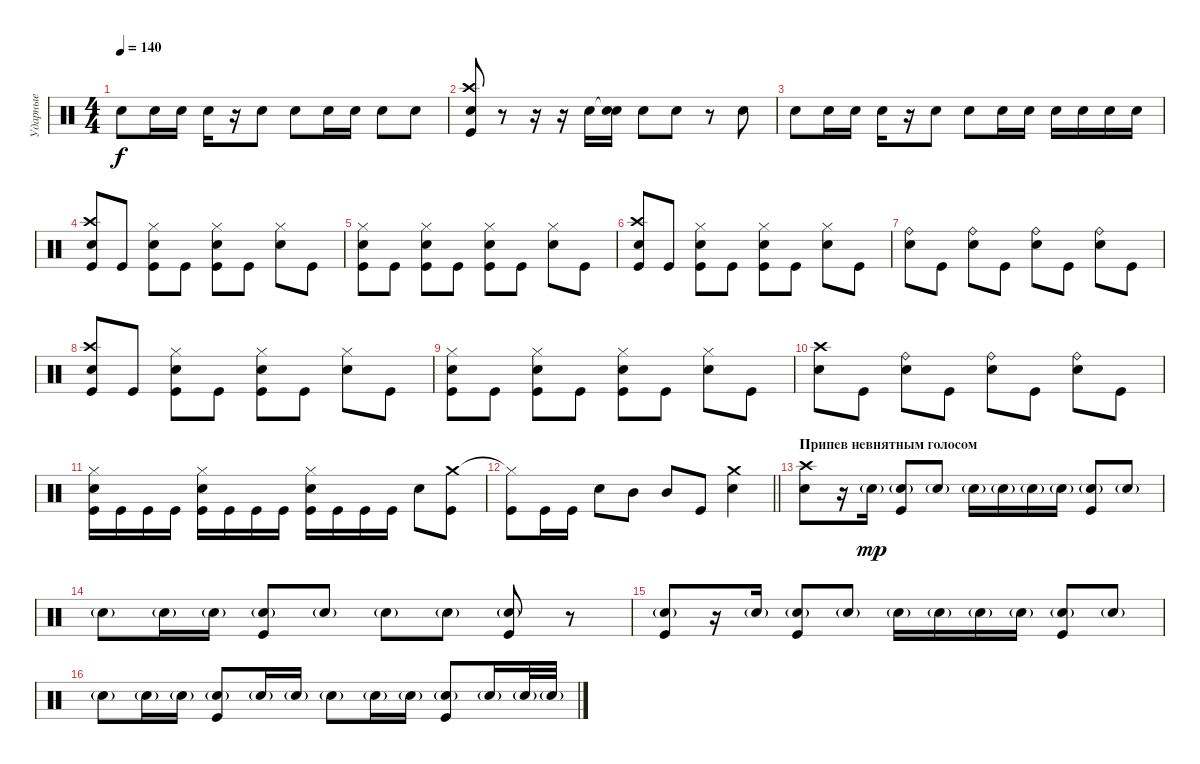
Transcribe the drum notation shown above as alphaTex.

\track ("Ударные" "Ударные") {instrument percussion}
\staff {score}
\articulation defaults
\ts (4 4)
\tempo 140
\clef neutral
\ks c "Electric Snare (hit)".8{dy f} "Electric Snare (hit)".16 "Electric Snare (hit)".16 "Electric Snare (hit)".16
r.16 "Electric Snare (hit)".8 "Electric Snare (hit)".8 "Electric Snare (hit)".16 "Electric Snare (hit)".16 "Electric Snare (hit)".8 "Electric Snare (hit)".8 |
("Crash high (hit)" "Electric Snare (hit)" "Kick (hit)").8 r.8 r.16 r.16 "Electric Snare (hit)".16 ("Snare (hit)"{t} "Electric Snare (hit)").16 "Electric Snare (hit)".8 "Electric Snare (hit)".8 r.8 "Electric Snare (hit)".8 |
"Electric Snare (hit)".8 "Electric Snare (hit)".16 "Electric Snare (hit)".16 "Electric Snare (hit)".16 r.16 "Electric Snare (hit)".8 "Electric Snare (hit)".8 "Electric Snare (hit)".16 "Electric Snare (hit)".16 "Electric Snare (hit)".16 "Electric Snare (hit)".16 "Electric Snare (hit)".16 "Electric Snare (hit)".16 |
("Crash high (hit)" "Electric Snare (hit)" "Kick (hit)").8 "Kick (hit)".8 ("Hi-Hat (closed)" "Electric Snare (hit)" "Kick (hit)").8 "Kick (hit)".8 ("Hi-Hat (closed)" "Electric Snare (hit)" "Kick (hit)").8 "Kick (hit)".8 ("Hi-Hat (closed)" "Electric Snare (hit)").8 "Kick (hit)".8 |
("Hi-Hat (closed)" "Electric Snare (hit)" "Kick (hit)").8 "Kick (hit)".8 ("Hi-Hat (closed)" "Electric Snare (hit)" "Kick (hit)").8 "Kick (hit)".8 ("Hi-Hat (closed)" "Electric Snare (hit)" "Kick (hit)").8 "Kick (hit)".8 ("Hi-Hat (closed)" "Electric Snare (hit)").8 "Kick (hit)".8 |
("Crash high (hit)" "Electric Snare (hit)" "Kick (hit)").8 "Kick (hit)".8 ("Hi-Hat (closed)" "Electric Snare (hit)" "Kick (hit)").8 "Kick (hit)".8 ("Hi-Hat (closed)" "Electric Snare (hit)" "Kick (hit)").8 "Kick (hit)".8 ("Hi-Hat (closed)" "Electric Snare (hit)").8 "Kick (hit)".8 |
("Ride (bell)" "Electric Snare (hit)").8 "Kick (hit)".8 ("Ride (bell)" "Electric Snare (hit)").8 "Kick (hit)".8 ("Ride (bell)" "Electric Snare (hit)").8 "Kick (hit)".8 ("Ride (bell)" "Electric Snare (hit)").8 "Kick (hit)".8 |
("Crash high (hit)" "Electric Snare (hit)" "Kick (hit)").8 "Kick (hit)".8 ("Hi-Hat (closed)" "Electric Snare (hit)" "Kick (hit)").8 "Kick (hit)".8 ("Hi-Hat (closed)" "Electric Snare (hit)" "Kick (hit)").8 "Kick (hit)".8 ("Hi-Hat (closed)" "Electric Snare (hit)").8 "Kick (hit)".8 |
("Hi-Hat (closed)" "Electric Snare (hit)" "Kick (hit)").8 "Kick (hit)".8 ("Hi-Hat (closed)" "Electric Snare (hit)" "Kick (hit)").8 "Kick (hit)".8 ("Hi-Hat (closed)" "Electric Snare (hit)" "Kick (hit)").8 "Kick (hit)".8 ("Hi-Hat (closed)" "Electric Snare (hit)").8 "Kick (hit)".8 |
("Crash high (hit)" "Electric Snare (hit)").8 "Kick (hit)".8 ("Ride (bell)" "Electric Snare (hit)").8 "Kick (hit)".8 ("Ride (bell)" "Electric Snare (hit)").8 "Kick (hit)".8 ("Ride (bell)" "Electric Snare (hit)").8 "Kick (hit)".8 |
("Hi-Hat (closed)" "Electric Snare (hit)" "Kick (hit)").16 "Kick (hit)".16 "Kick (hit)".16 "Kick (hit)".16 ("Hi-Hat (closed)" "Electric Snare (hit)" "Kick (hit)").16 "Kick (hit)".16 "Kick (hit)".16 "Kick (hit)".16 ("Hi-Hat (closed)" "Electric Snare (hit)" "Kick (hit)").16 "Kick (hit)".16 "Kick (hit)".16 "Kick (hit)".16 "Electric Snare (hit)".8 ("Crash medium (hit)" "Kick (hit)").8 |
\barLineRight lightlight
("Hi-Hat (closed)"{t} "Kick (hit)").8 "Kick (hit)".16 "Kick (hit)".16 "Electric Snare (hit)".8 "Mid Tom (hit)".8 "Mid Tom (hit)".8 "Kick (hit)".8 ("Crash medium (hit)" "Electric Snare (hit)").4 |
\section ("" "Припев невнятным голосом")
("Crash high (hit)" "Electric Snare (hit)").8 r.16 "Electric Snare (hit)"{g}.16{dy mp} ("Electric Snare (hit)"{g} "Kick (hit)").8 "Electric Snare (hit)"{g}.8 "Electric Snare (hit)"{g}.16 "Electric Snare (hit)"{g}.16 "Electric Snare (hit)"{g}.16 "Electric Snare (hit)"{g}.16 ("Electric Snare (hit)"{g} "Kick (hit)").8 "Electric Snare (hit)"{g}.8 |
"Electric Snare (hit)"{g}.8 "Electric Snare (hit)"{g}.16 "Electric Snare (hit)"{g}.16 ("Electric Snare (hit)"{g} "Kick (hit)").8 "Electric Snare (hit)"{g}.8 "Electric Snare (hit)"{g}.8 "Electric Snare (hit)"{g}.8 ("Electric Snare (hit)"{g} "Kick (hit)").8 r.8 |
("Electric Snare (hit)"{g} "Kick (hit)").8 r.16 "Electric Snare (hit)"{g}.16 ("Electric Snare (hit)"{g} "Kick (hit)").8 "Electric Snare (hit)"{g}.8 "Electric Snare (hit)"{g}.16 "Electric Snare (hit)"{g}.16 "Electric Snare (hit)"{g}.16 "Electric Snare (hit)"{g}.16 ("Electric Snare (hit)"{g} "Kick (hit)").8 "Electric Snare (hit)"{g}.8 |
"Electric Snare (hit)"{g}.8 "Electric Snare (hit)"{g}.16 "Electric Snare (hit)"{g}.16 ("Electric Snare (hit)"{g} "Kick (hit)").8 "Electric Snare (hit)"{g}.16 "Electric Snare (hit)"{g}.16 "Electric Snare (hit)"{g}.8 "Electric Snare (hit)"{g}.16 "Electric Snare (hit)"{g}.16 ("Electric Snare (hit)"{g} "Kick (hit)").8 "Electric Snare (hit)"{g}.16 "Electric Snare (hit)"{g}.32 "Electric Snare (hit)"{g}.32
